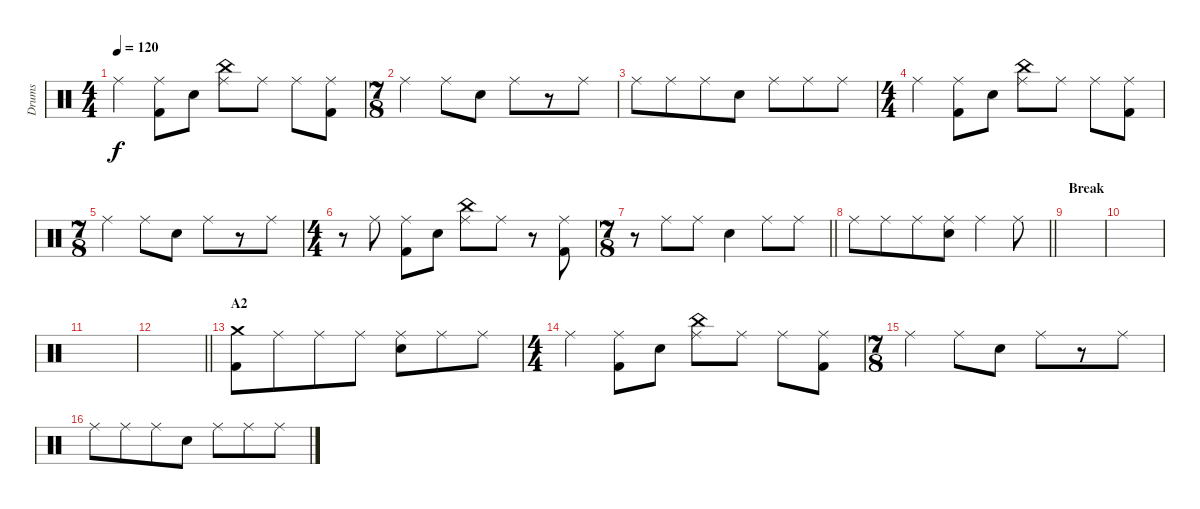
\track ("Drums" "Drums") {instrument percussion}
\staff {score}
\articulation defaults
\ts (4 4)
\tempo 120
\clef neutral
\ks c "Ride (middle)".4{dy f}
("Ride (middle)" "Kick (hit) 2").8 "Snare (hit) 2".8 ("Ride (middle)" "China (hit)").8 "Ride (middle)".8 "Ride (middle)".8 ("Ride (middle)" "Kick (hit) 2").8 |
\ts (7 8)
"Ride (middle)".4 "Ride (middle)".8 "Snare (hit) 2".8 "Ride (middle)".8 r.8 "Ride (middle)".8 |
"Ride (middle)".8 "Ride (middle)".8 "Ride (middle)".8 "Snare (hit) 2".8 "Ride (middle)".8 "Ride (middle)".8 "Ride (middle)".8 |
\ts (4 4)
"Ride (middle)".4 ("Ride (middle)" "Kick (hit) 2").8 "Snare (hit) 2".8 ("Ride (middle)" "China (hit)").8 "Ride (middle)".8 "Ride (middle)".8 ("Ride (middle)" "Kick (hit) 2").8 |
\ts (7 8)
"Ride (middle)".4 "Ride (middle)".8 "Snare (hit) 2".8 "Ride (middle)".8 r.8 "Ride (middle)".8 |
\ts (4 4)
r.8 "Ride (middle)".8 ("Ride (middle)" "Kick (hit) 2").8 "Snare (hit) 2".8 ("Ride (middle)" "China (hit)").8 "Ride (middle)".8 r.8 ("Ride (middle)" "Kick (hit) 2").8 |
\ts (7 8)
\barLineRight lightlight
r.8 "Ride (middle)".8 "Ride (middle)".8 "Snare (hit) 2".4 "Ride (middle)".8 "Ride (middle)".8 |
\barLineRight lightlight "Ride (middle)".8 "Ride (middle)".8 "Ride (middle)".8
("Ride (middle)" "Snare (hit) 2").8 "Ride (middle)".4 "Ride (middle)".8 |
\section ("" "Break")
|
|
|
\barLineRight lightlight
|
\section ("" "A2")
("Crash medium (hit)" "Kick (hit) 2").8 "Ride (middle)".8 "Ride (middle)".8 "Ride (middle)".8 ("Ride (middle)" "Snare (hit) 2").8 "Ride (middle)".8 "Ride (middle)".8 |
\ts (4 4)
"Ride (middle)".4 ("Ride (middle)" "Kick (hit) 2").8 "Snare (hit) 2".8 ("Ride (middle)" "China (hit)").8 "Ride (middle)".8 "Ride (middle)".8 ("Ride (middle)" "Kick (hit) 2").8 |
\ts (7 8)
"Ride (middle)".4 "Ride (middle)".8 "Snare (hit) 2".8 "Ride (middle)".8 r.8 "Ride (middle)".8 |
"Ride (middle)".8 "Ride (middle)".8 "Ride (middle)".8 "Snare (hit) 2".8 "Ride (middle)".8 "Ride (middle)".8 "Ride (middle)".8
